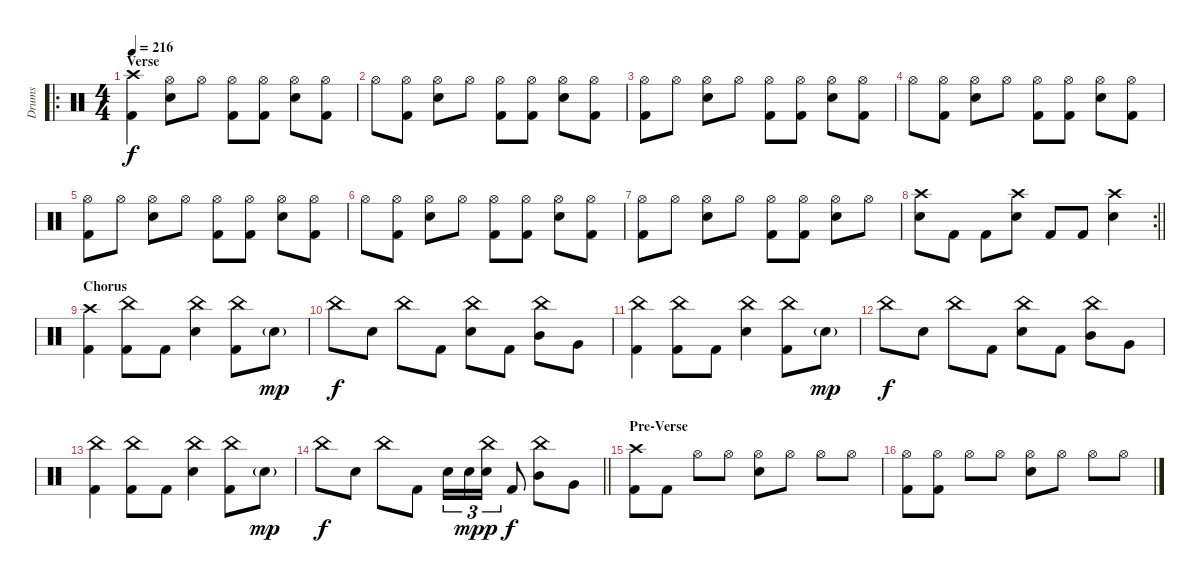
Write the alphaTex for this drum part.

\track ("Drums" "Drums") {instrument percussion}
\staff {score}
\articulation defaults
\ro
\ts (4 4)
\section ("" "Verse")
\tempo 216
\clef neutral
\ks c
("Crash high (hit)" "Kick (hit) 2").4{dy f} ("Hi-Hat (open)" "Electric Snare (hit)").8 "Hi-Hat (open)".8 ("Hi-Hat (open)" "Kick (hit) 2").8 ("Hi-Hat (open)" "Kick (hit) 2").8 ("Hi-Hat (open)" "Electric Snare (hit)").8 ("Hi-Hat (open)" "Kick (hit) 2").8 |
"Hi-Hat (open)".8 ("Hi-Hat (open)" "Kick (hit) 2").8 ("Hi-Hat (open)" "Electric Snare (hit)").8 "Hi-Hat (open)".8 ("Hi-Hat (open)" "Kick (hit) 2").8 ("Hi-Hat (open)" "Kick (hit) 2").8 ("Hi-Hat (open)" "Electric Snare (hit)").8 ("Hi-Hat (open)" "Kick (hit) 2").8 |
("Hi-Hat (open)" "Kick (hit) 2").8 "Hi-Hat (open)".8 ("Hi-Hat (open)" "Electric Snare (hit)").8 "Hi-Hat (open)".8 ("Hi-Hat (open)" "Kick (hit) 2").8 ("Hi-Hat (open)" "Kick (hit) 2").8 ("Hi-Hat (open)" "Electric Snare (hit)").8 ("Hi-Hat (open)" "Kick (hit) 2").8 |
"Hi-Hat (open)".8 ("Hi-Hat (open)" "Kick (hit) 2").8 ("Hi-Hat (open)" "Electric Snare (hit)").8 "Hi-Hat (open)".8 ("Hi-Hat (open)" "Kick (hit) 2").8 ("Hi-Hat (open)" "Kick (hit) 2").8 ("Hi-Hat (open)" "Electric Snare (hit)").8 ("Hi-Hat (open)" "Kick (hit) 2").8 |
("Hi-Hat (open)" "Kick (hit) 2").8 "Hi-Hat (open)".8 ("Hi-Hat (open)" "Electric Snare (hit)").8 "Hi-Hat (open)".8 ("Hi-Hat (open)" "Kick (hit) 2").8 ("Hi-Hat (open)" "Kick (hit) 2").8 ("Hi-Hat (open)" "Electric Snare (hit)").8 ("Hi-Hat (open)" "Kick (hit) 2").8 |
"Hi-Hat (open)".8 ("Hi-Hat (open)" "Kick (hit) 2").8 ("Hi-Hat (open)" "Electric Snare (hit)").8 "Hi-Hat (open)".8 ("Hi-Hat (open)" "Kick (hit) 2").8 ("Hi-Hat (open)" "Kick (hit) 2").8 ("Hi-Hat (open)" "Electric Snare (hit)").8 ("Hi-Hat (open)" "Kick (hit) 2").8 |
("Hi-Hat (open)" "Kick (hit) 2").8 "Hi-Hat (open)".8 ("Hi-Hat (open)" "Electric Snare (hit)").8 "Hi-Hat (open)".8 ("Hi-Hat (open)" "Kick (hit) 2").8 ("Hi-Hat (open)" "Kick (hit) 2").8 ("Hi-Hat (open)" "Electric Snare (hit)").8 "Hi-Hat (open)".8 |
\rc 2
\barLineRight lightlight
("Crash high (hit)" "Electric Snare (hit)").8 "Kick (hit) 2".8 "Kick (hit) 2".8 ("Crash high (hit)" "Electric Snare (hit)").8 "Kick (hit) 2".8 "Kick (hit) 2".8 ("Crash high (hit)" "Electric Snare (hit)").4 |
\section ("" "Chorus")
("Crash high (hit)" "Kick (hit) 2").4 ("China (hit)" "Kick (hit) 2").8 "Kick (hit) 2".8 ("China (hit)" "Electric Snare (hit)").4 ("China (hit)" "Kick (hit) 2").8 "Electric Snare (hit)"{g}.8{dy mp} |
"China (hit)".8{dy f} "Electric Snare (hit)".8 "China (hit)".8 "Kick (hit) 2".8 ("China (hit)" "Electric Snare (hit)").8 "Kick (hit) 2".8 ("China (hit)" "Mid Tom (hit)").8 "Very Low Tom (hit)".8 |
("China (hit)" "Kick (hit) 2").4 ("China (hit)" "Kick (hit) 2").8 "Kick (hit) 2".8 ("China (hit)" "Electric Snare (hit)").4 ("China (hit)" "Kick (hit) 2").8 "Electric Snare (hit)"{g}.8{dy mp} |
"China (hit)".8{dy f} "Electric Snare (hit)".8 "China (hit)".8 "Kick (hit) 2".8 ("China (hit)" "Electric Snare (hit)").8 "Kick (hit) 2".8 ("China (hit)" "Mid Tom (hit)").8 "Very Low Tom (hit)".8 |
("China (hit)" "Kick (hit) 2").4 ("China (hit)" "Kick (hit) 2").8 "Kick (hit) 2".8 ("China (hit)" "Electric Snare (hit)").4 ("China (hit)" "Kick (hit) 2").8 "Electric Snare (hit)"{g}.8{dy mp} |
\barLineRight lightlight "China (hit)".8{dy f} "Electric Snare (hit)".8 "China (hit)".8 "Kick (hit) 2".8 "Electric Snare (hit)".16{tu (3 2)} "Electric Snare (hit)".16{tu (3 2) dy mp}
("China (hit)" "Electric Snare (hit)").16{tu (3 2) dy p} "Kick (hit) 2".8{dy f} ("China (hit)" "Mid Tom (hit)").8 "Very Low Tom (hit)".8 |
\section ("" "Pre-Verse")
("Crash high (hit)" "Kick (hit) 2").8 "Kick (hit) 2".8 "Hi-Hat (open)".8 "Hi-Hat (open)".8 ("Hi-Hat (open)" "Electric Snare (hit)").8 "Hi-Hat (open)".8 "Hi-Hat (open)".8 "Hi-Hat (open)".8 |
("Hi-Hat (open)" "Kick (hit) 2").8 ("Hi-Hat (open)" "Kick (hit) 2").8 "Hi-Hat (open)".8 "Hi-Hat (open)".8 ("Hi-Hat (open)" "Electric Snare (hit)").8 "Hi-Hat (open)".8 "Hi-Hat (open)".8 "Hi-Hat (open)".8
